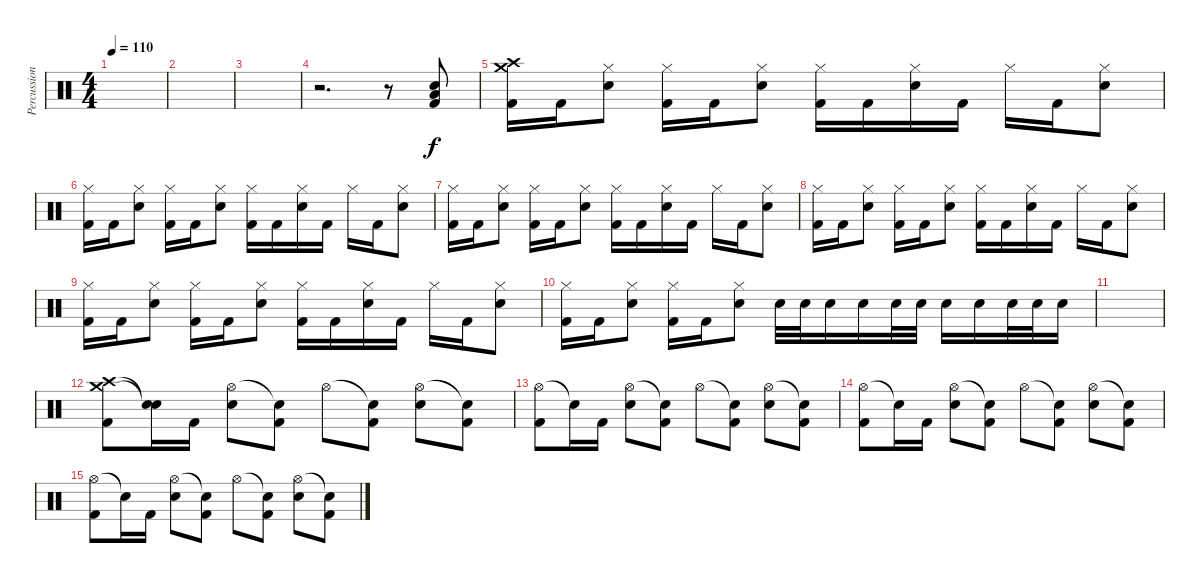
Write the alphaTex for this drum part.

\track ("Percussion" "Percussion") {instrument percussion}
\staff {score}
\articulation defaults
\ts (4 4)
\tempo 110
\clef neutral
\ks c
|
|
|
r.2{d} r.8 ("Low Floor Tom (hit)" "Snare (hit) 2" "Kick (hit) 2").8 |
("Crash medium (hit)" "Crash high (hit)" "Kick (hit) 2").16 "Kick (hit) 2".16 ("Hi-Hat (closed)" "Snare (hit) 2").8 ("Hi-Hat (closed)" "Kick (hit) 2").16 "Kick (hit) 2".16 ("Hi-Hat (closed)" "Snare (hit) 2").8 ("Hi-Hat (closed)" "Kick (hit) 2").16 "Kick (hit) 2".16 ("Hi-Hat (closed)" "Snare (hit) 2").16 "Kick (hit) 2".16 "Hi-Hat (closed)".16 "Kick (hit) 2".16 ("Hi-Hat (closed)" "Snare (hit) 2").8 |
("Hi-Hat (closed)" "Kick (hit) 2").16 "Kick (hit) 2".16 ("Hi-Hat (closed)" "Snare (hit) 2").8 ("Hi-Hat (closed)" "Kick (hit) 2").16 "Kick (hit) 2".16 ("Hi-Hat (closed)" "Snare (hit) 2").8 ("Hi-Hat (closed)" "Kick (hit) 2").16 "Kick (hit) 2".16 ("Hi-Hat (closed)" "Snare (hit) 2").16 "Kick (hit) 2".16 "Hi-Hat (closed)".16 "Kick (hit) 2".16 ("Hi-Hat (closed)" "Snare (hit) 2").8 |
("Hi-Hat (closed)" "Kick (hit) 2").16 "Kick (hit) 2".16 ("Hi-Hat (closed)" "Snare (hit) 2").8 ("Hi-Hat (closed)" "Kick (hit) 2").16 "Kick (hit) 2".16 ("Hi-Hat (closed)" "Snare (hit) 2").8 ("Hi-Hat (closed)" "Kick (hit) 2").16 "Kick (hit) 2".16 ("Hi-Hat (closed)" "Snare (hit) 2").16 "Kick (hit) 2".16 "Hi-Hat (closed)".16 "Kick (hit) 2".16 ("Hi-Hat (closed)" "Snare (hit) 2").8 |
("Hi-Hat (closed)" "Kick (hit) 2").16 "Kick (hit) 2".16 ("Hi-Hat (closed)" "Snare (hit) 2").8 ("Hi-Hat (closed)" "Kick (hit) 2").16 "Kick (hit) 2".16 ("Hi-Hat (closed)" "Snare (hit) 2").8 ("Hi-Hat (closed)" "Kick (hit) 2").16 "Kick (hit) 2".16 ("Hi-Hat (closed)" "Snare (hit) 2").16 "Kick (hit) 2".16 "Hi-Hat (closed)".16 "Kick (hit) 2".16 ("Hi-Hat (closed)" "Snare (hit) 2").8 |
("Hi-Hat (closed)" "Kick (hit) 2").16 "Kick (hit) 2".16 ("Hi-Hat (closed)" "Snare (hit) 2").8 ("Hi-Hat (closed)" "Kick (hit) 2").16 "Kick (hit) 2".16 ("Hi-Hat (closed)" "Snare (hit) 2").8 ("Hi-Hat (closed)" "Kick (hit) 2").16 "Kick (hit) 2".16 ("Hi-Hat (closed)" "Snare (hit) 2").16 "Kick (hit) 2".16 "Hi-Hat (closed)".16 "Kick (hit) 2".16 ("Hi-Hat (closed)" "Snare (hit) 2").8 |
("Hi-Hat (closed)" "Kick (hit) 2").16 "Kick (hit) 2".16 ("Hi-Hat (closed)" "Snare (hit) 2").8 ("Hi-Hat (closed)" "Kick (hit) 2").16 "Kick (hit) 2".16 ("Hi-Hat (closed)" "Snare (hit) 2").8 "Snare (hit) 2".32 "Snare (hit) 2".32 "Snare (hit) 2".16 "Snare (hit) 2".16 "Snare (hit) 2".32 "Snare (hit) 2".32 "Snare (hit) 2".16 "Snare (hit) 2".16 "Snare (hit) 2".32 "Snare (hit) 2".32 "Snare (hit) 2".16 |
|
("Crash medium (hit)" "Crash high (hit)" "Kick (hit) 2").8 ("Snare (hit)"{t} "Snare (hit)"{t}).16 "Kick (hit) 2".16 ("Hi-Hat (open)" "Snare (hit) 2").8 ("Snare (hit)"{t} "Kick (hit) 2").8 "Hi-Hat (open)".8 ("Snare (hit)"{t} "Kick (hit) 2").8 ("Hi-Hat (open)" "Snare (hit) 2").8 ("Snare (hit)"{t} "Kick (hit) 2").8 |
("Hi-Hat (open)" "Kick (hit) 2").8 "Snare (hit)"{t}.16 "Kick (hit) 2".16 ("Hi-Hat (open)" "Snare (hit) 2").8 ("Snare (hit)"{t} "Kick (hit) 2").8 "Hi-Hat (open)".8 ("Snare (hit)"{t} "Kick (hit) 2").8 ("Hi-Hat (open)" "Snare (hit) 2").8 ("Snare (hit)"{t} "Kick (hit) 2").8 |
("Hi-Hat (open)" "Kick (hit) 2").8 "Snare (hit)"{t}.16 "Kick (hit) 2".16 ("Hi-Hat (open)" "Snare (hit) 2").8 ("Snare (hit)"{t} "Kick (hit) 2").8 "Hi-Hat (open)".8 ("Snare (hit)"{t} "Kick (hit) 2").8 ("Hi-Hat (open)" "Snare (hit) 2").8 ("Snare (hit)"{t} "Kick (hit) 2").8 |
("Hi-Hat (open)" "Kick (hit) 2").8 "Snare (hit)"{t}.16 "Kick (hit) 2".16 ("Hi-Hat (open)" "Snare (hit) 2").8 ("Snare (hit)"{t} "Kick (hit) 2").8 "Hi-Hat (open)".8 ("Snare (hit)"{t} "Kick (hit) 2").8 ("Hi-Hat (open)" "Snare (hit) 2").8 ("Snare (hit)"{t} "Kick (hit) 2").8
